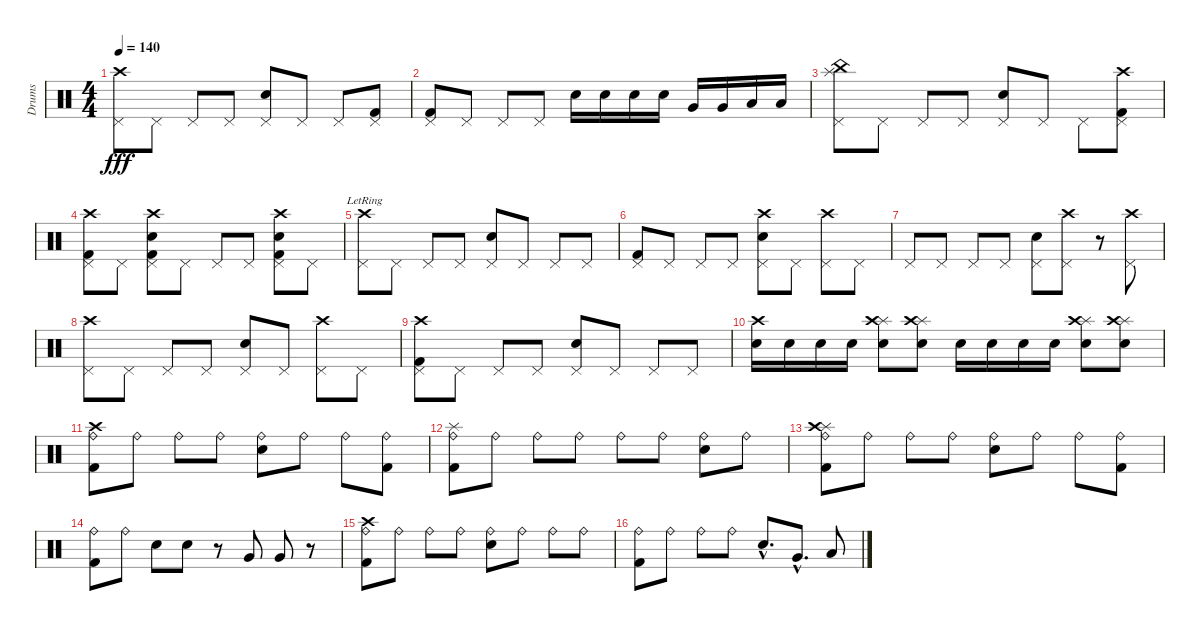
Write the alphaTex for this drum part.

\track ("Drums" "Drums") {instrument percussion}
\staff {score}
\articulation defaults
\ts (4 4)
\tempo 140
\clef neutral
\ks c
("Crash high (hit)" "Pedal Hi-Hat (hit)").8{dy fff} "Pedal Hi-Hat (hit)".8 "Pedal Hi-Hat (hit)".8 "Pedal Hi-Hat (hit)".8 ("Pedal Hi-Hat (hit)" "Snare (hit) 2").8 "Pedal Hi-Hat (hit)".8 "Pedal Hi-Hat (hit)".8 ("Pedal Hi-Hat (hit)" "Kick (hit) 2").8 |
("Pedal Hi-Hat (hit)" "Kick (hit) 2").8 "Pedal Hi-Hat (hit)".8 "Pedal Hi-Hat (hit)".8 "Pedal Hi-Hat (hit)".8 "Snare (hit) 2".16 "Snare (hit) 2".16 "Snare (hit) 2".16 "Snare (hit) 2".16 "Very Low Tom (hit)".16 "Very Low Tom (hit)".16 "Low Floor Tom (hit)".16 "Low Floor Tom (hit)".16 |
("China (hit)" "Splash (hit)" "Pedal Hi-Hat (hit)").8 "Pedal Hi-Hat (hit)".8 "Pedal Hi-Hat (hit)".8 "Pedal Hi-Hat (hit)".8 ("Pedal Hi-Hat (hit)" "Snare (hit) 2").8 "Pedal Hi-Hat (hit)".8 "Pedal Hi-Hat (hit)".8 ("Crash high (hit)" "Pedal Hi-Hat (hit)" "Kick (hit) 2").8 |
("Crash high (hit)" "Pedal Hi-Hat (hit)" "Kick (hit) 2").8 "Pedal Hi-Hat (hit)".8 ("Snare (hit) 2" "Crash high (hit)" "Pedal Hi-Hat (hit)" "Kick (hit) 2").8 "Pedal Hi-Hat (hit)".8 "Pedal Hi-Hat (hit)".8 "Pedal Hi-Hat (hit)".8 ("Snare (hit) 2" "Crash high (hit)" "Pedal Hi-Hat (hit)" "Kick (hit) 2").8 "Pedal Hi-Hat (hit)".8 |
("Crash high (hit)"{lr} "Pedal Hi-Hat (hit)").8 "Pedal Hi-Hat (hit)".8 "Pedal Hi-Hat (hit)".8 "Pedal Hi-Hat (hit)".8 ("Pedal Hi-Hat (hit)" "Snare (hit) 2").8 "Pedal Hi-Hat (hit)".8 "Pedal Hi-Hat (hit)".8 "Pedal Hi-Hat (hit)".8 |
("Pedal Hi-Hat (hit)" "Kick (hit) 2").8 "Pedal Hi-Hat (hit)".8 "Pedal Hi-Hat (hit)".8 "Pedal Hi-Hat (hit)".8 ("Crash high (hit)" "Pedal Hi-Hat (hit)" "Snare (hit) 2").8 "Pedal Hi-Hat (hit)".8 ("Crash high (hit)" "Pedal Hi-Hat (hit)").8 "Pedal Hi-Hat (hit)".8 |
"Pedal Hi-Hat (hit)".8 "Pedal Hi-Hat (hit)".8 "Pedal Hi-Hat (hit)".8 "Pedal Hi-Hat (hit)".8 ("Pedal Hi-Hat (hit)" "Snare (hit) 2").8 ("Crash high (hit)" "Pedal Hi-Hat (hit)").8 r.8 ("Crash high (hit)" "Pedal Hi-Hat (hit)").8 |
("Crash high (hit)" "Pedal Hi-Hat (hit)").8 "Pedal Hi-Hat (hit)".8 "Pedal Hi-Hat (hit)".8 "Pedal Hi-Hat (hit)".8 ("Pedal Hi-Hat (hit)" "Snare (hit) 2").8 "Pedal Hi-Hat (hit)".8 ("Crash high (hit)" "Pedal Hi-Hat (hit)").8 "Pedal Hi-Hat (hit)".8 |
("Crash high (hit)" "Pedal Hi-Hat (hit)" "Kick (hit) 2").8 "Pedal Hi-Hat (hit)".8 "Pedal Hi-Hat (hit)".8 "Pedal Hi-Hat (hit)".8 ("Pedal Hi-Hat (hit)" "Snare (hit) 2").8 "Pedal Hi-Hat (hit)".8 "Pedal Hi-Hat (hit)".8 "Pedal Hi-Hat (hit)".8 |
("Crash high (hit)" "Snare (hit) 2").16 "Snare (hit) 2".16 "Snare (hit) 2".16 "Snare (hit) 2".16 ("Splash (hit)" "Crash high (hit)" "Snare (hit) 2").8 ("Splash (hit)" "Crash high (hit)" "Snare (hit) 2").8 "Snare (hit) 2".16 "Snare (hit) 2".16 "Snare (hit) 2".16 "Snare (hit) 2".16 ("Splash (hit)" "Crash high (hit)" "Snare (hit) 2").8 ("Splash (hit)" "Crash high (hit)" "Snare (hit) 2").8 |
("Crash high (hit)" "Ride (bell)" "Kick (hit) 2").8 "Ride (bell)".8 "Ride (bell)".8 "Ride (bell)".8 ("Ride (bell)" "Snare (hit) 2").8 "Ride (bell)".8 "Ride (bell)".8 ("Ride (bell)" "Kick (hit) 2").8 |
("Splash (hit)" "Ride (bell)" "Kick (hit) 2").8 "Ride (bell)".8 "Ride (bell)".8 "Ride (bell)".8 "Ride (bell)".8 "Ride (bell)".8 ("Ride (bell)" "Snare (hit) 2").8 "Ride (bell)".8 |
("Splash (hit)" "Crash high (hit)" "Ride (bell)" "Kick (hit) 2").8 "Ride (bell)".8 "Ride (bell)".8 "Ride (bell)".8 ("Ride (bell)" "Snare (hit) 2").8 "Ride (bell)".8 "Ride (bell)".8 ("Ride (bell)" "Kick (hit) 2").8 |
("Ride (bell)" "Kick (hit) 2").8 "Ride (bell)".8 "Snare (hit) 2".8 "Snare (hit) 2".8 r.8 "Very Low Tom (hit)".8 "Very Low Tom (hit)".8 r.8 |
("Crash high (hit)" "Ride (bell)" "Kick (hit) 2").8 "Ride (bell)".8 "Ride (bell)".8 "Ride (bell)".8 ("Ride (bell)" "Snare (hit) 2").8 "Ride (bell)".8 "Ride (bell)".8 "Ride (bell)".8 |
("Ride (bell)" "Kick (hit) 2").8 "Ride (bell)".8 "Ride (bell)".8 "Ride (bell)".8 "Snare (hit) 2"{hac}.8{d} "Very Low Tom (hit)"{hac}.8{d} "Low Floor Tom (hit)".8
